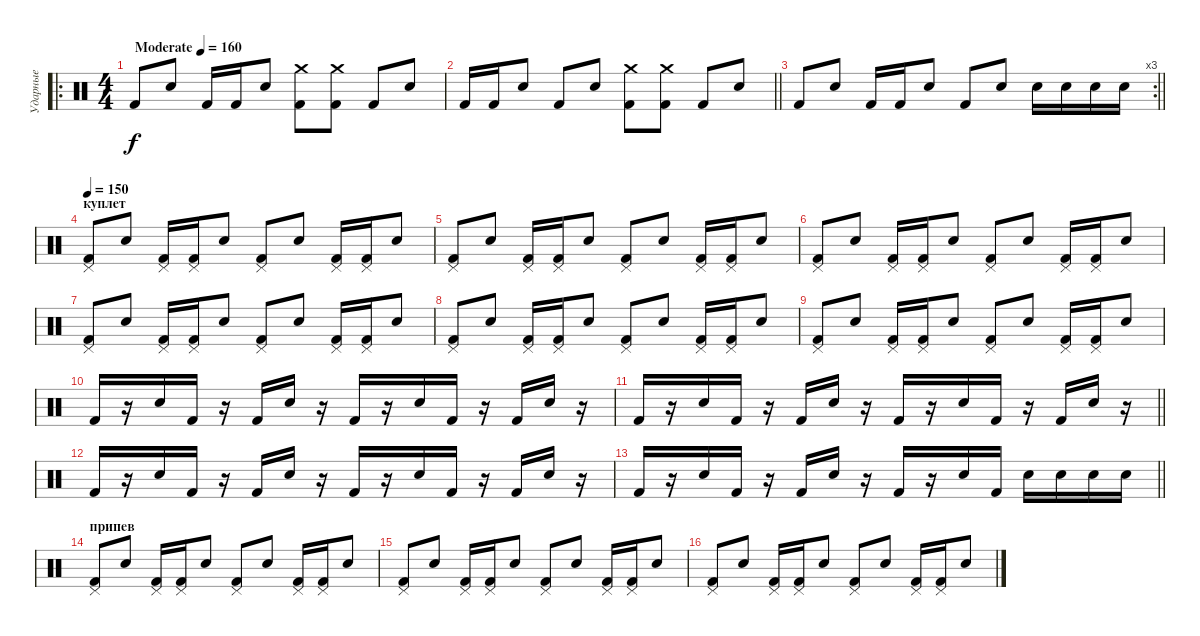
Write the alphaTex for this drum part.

\track ("Ударные" "Ударные") {instrument percussion}
\staff {score}
\articulation defaults
\ro
\ts (4 4)
\tempo (160 "Moderate")
\tempo 140
\tempo (160 "Moderate")
\clef neutral
\ks c "Kick (hit) 2".8{dy f} "Electric Snare (hit)".8 "Kick (hit) 2".16 "Kick (hit) 2".16 "Electric Snare (hit)".8
("Kick (hit) 2" "Crash medium (hit)").8 ("Kick (hit) 2" "Crash medium (hit)").8 "Kick (hit) 2".8 "Electric Snare (hit)".8 |
\barLineRight lightlight "Kick (hit) 2".16 "Kick (hit) 2".16 "Electric Snare (hit)".8 "Kick (hit) 2".8 "Electric Snare (hit)".8
("Kick (hit) 2" "Crash medium (hit)").8 ("Kick (hit) 2" "Crash medium (hit)").8 "Kick (hit) 2".8 "Electric Snare (hit)".8 |
\rc 3
\barLineRight lightlight "Kick (hit) 2".8 "Electric Snare (hit)".8 "Kick (hit) 2".16 "Kick (hit) 2".16 "Electric Snare (hit)".8 "Kick (hit) 2".8 "Electric Snare (hit)".8 "Electric Snare (hit)".16 "Electric Snare (hit)".16 "Electric Snare (hit)".16 "Electric Snare (hit)".16
|
\section ("" "куплет")
\tempo 150
("Kick (hit) 2" "Pedal Hi-Hat (hit)").8 "Electric Snare (hit)".8 ("Kick (hit) 2" "Pedal Hi-Hat (hit)").16 ("Kick (hit) 2" "Pedal Hi-Hat (hit)").16 "Electric Snare (hit)".8 ("Kick (hit) 2" "Pedal Hi-Hat (hit)").8 "Electric Snare (hit)".8 ("Kick (hit) 2" "Pedal Hi-Hat (hit)").16 ("Kick (hit) 2" "Pedal Hi-Hat (hit)").16 "Electric Snare (hit)".8 |
("Kick (hit) 2" "Pedal Hi-Hat (hit)").8 "Electric Snare (hit)".8 ("Kick (hit) 2" "Pedal Hi-Hat (hit)").16 ("Kick (hit) 2" "Pedal Hi-Hat (hit)").16 "Electric Snare (hit)".8 ("Kick (hit) 2" "Pedal Hi-Hat (hit)").8 "Electric Snare (hit)".8 ("Kick (hit) 2" "Pedal Hi-Hat (hit)").16 ("Kick (hit) 2" "Pedal Hi-Hat (hit)").16 "Electric Snare (hit)".8 |
("Kick (hit) 2" "Pedal Hi-Hat (hit)").8 "Electric Snare (hit)".8 ("Kick (hit) 2" "Pedal Hi-Hat (hit)").16 ("Kick (hit) 2" "Pedal Hi-Hat (hit)").16 "Electric Snare (hit)".8 ("Kick (hit) 2" "Pedal Hi-Hat (hit)").8 "Electric Snare (hit)".8 ("Kick (hit) 2" "Pedal Hi-Hat (hit)").16 ("Kick (hit) 2" "Pedal Hi-Hat (hit)").16 "Electric Snare (hit)".8 |
("Kick (hit) 2" "Pedal Hi-Hat (hit)").8 "Electric Snare (hit)".8 ("Kick (hit) 2" "Pedal Hi-Hat (hit)").16 ("Kick (hit) 2" "Pedal Hi-Hat (hit)").16 "Electric Snare (hit)".8 ("Kick (hit) 2" "Pedal Hi-Hat (hit)").8 "Electric Snare (hit)".8 ("Kick (hit) 2" "Pedal Hi-Hat (hit)").16 ("Kick (hit) 2" "Pedal Hi-Hat (hit)").16 "Electric Snare (hit)".8 |
("Kick (hit) 2" "Pedal Hi-Hat (hit)").8 "Electric Snare (hit)".8 ("Kick (hit) 2" "Pedal Hi-Hat (hit)").16 ("Kick (hit) 2" "Pedal Hi-Hat (hit)").16 "Electric Snare (hit)".8 ("Kick (hit) 2" "Pedal Hi-Hat (hit)").8 "Electric Snare (hit)".8 ("Kick (hit) 2" "Pedal Hi-Hat (hit)").16 ("Kick (hit) 2" "Pedal Hi-Hat (hit)").16 "Electric Snare (hit)".8 |
("Kick (hit) 2" "Pedal Hi-Hat (hit)").8 "Electric Snare (hit)".8 ("Kick (hit) 2" "Pedal Hi-Hat (hit)").16 ("Kick (hit) 2" "Pedal Hi-Hat (hit)").16 "Electric Snare (hit)".8 ("Kick (hit) 2" "Pedal Hi-Hat (hit)").8 "Electric Snare (hit)".8 ("Kick (hit) 2" "Pedal Hi-Hat (hit)").16 ("Kick (hit) 2" "Pedal Hi-Hat (hit)").16 "Electric Snare (hit)".8 |
"Kick (hit) 2".16 r.16 "Electric Snare (hit)".16 "Kick (hit) 2".16 r.16 "Kick (hit) 2".16 "Electric Snare (hit)".16 r.16 "Kick (hit) 2".16 r.16 "Electric Snare (hit)".16 "Kick (hit) 2".16 r.16 "Kick (hit) 2".16 "Electric Snare (hit)".16 r.16 |
\barLineRight lightlight "Kick (hit) 2".16
r.16 "Electric Snare (hit)".16 "Kick (hit) 2".16 r.16 "Kick (hit) 2".16 "Electric Snare (hit)".16 r.16 "Kick (hit) 2".16 r.16 "Electric Snare (hit)".16 "Kick (hit) 2".16 r.16 "Kick (hit) 2".16 "Electric Snare (hit)".16 r.16 |
"Kick (hit) 2".16 r.16 "Electric Snare (hit)".16 "Kick (hit) 2".16 r.16 "Kick (hit) 2".16 "Electric Snare (hit)".16 r.16 "Kick (hit) 2".16 r.16 "Electric Snare (hit)".16 "Kick (hit) 2".16 r.16 "Kick (hit) 2".16 "Electric Snare (hit)".16 r.16 |
\barLineRight lightlight "Kick (hit) 2".16
r.16 "Electric Snare (hit)".16 "Kick (hit) 2".16 r.16 "Kick (hit) 2".16 "Electric Snare (hit)".16 r.16 "Kick (hit) 2".16 r.16 "Electric Snare (hit)".16 "Kick (hit) 2".16 "Electric Snare (hit)".16 "Electric Snare (hit)".16 "Electric Snare (hit)".16 "Electric Snare (hit)".16 |
\section ("" "припев")
("Kick (hit) 2" "Pedal Hi-Hat (hit)").8 "Electric Snare (hit)".8 ("Kick (hit) 2" "Pedal Hi-Hat (hit)").16 ("Kick (hit) 2" "Pedal Hi-Hat (hit)").16 "Electric Snare (hit)".8 ("Kick (hit) 2" "Pedal Hi-Hat (hit)").8 "Electric Snare (hit)".8 ("Kick (hit) 2" "Pedal Hi-Hat (hit)").16 ("Kick (hit) 2" "Pedal Hi-Hat (hit)").16 "Electric Snare (hit)".8 |
("Kick (hit) 2" "Pedal Hi-Hat (hit)").8 "Electric Snare (hit)".8 ("Kick (hit) 2" "Pedal Hi-Hat (hit)").16 ("Kick (hit) 2" "Pedal Hi-Hat (hit)").16 "Electric Snare (hit)".8 ("Kick (hit) 2" "Pedal Hi-Hat (hit)").8 "Electric Snare (hit)".8 ("Kick (hit) 2" "Pedal Hi-Hat (hit)").16 ("Kick (hit) 2" "Pedal Hi-Hat (hit)").16 "Electric Snare (hit)".8 |
("Kick (hit) 2" "Pedal Hi-Hat (hit)").8 "Electric Snare (hit)".8 ("Kick (hit) 2" "Pedal Hi-Hat (hit)").16 ("Kick (hit) 2" "Pedal Hi-Hat (hit)").16 "Electric Snare (hit)".8 ("Kick (hit) 2" "Pedal Hi-Hat (hit)").8 "Electric Snare (hit)".8 ("Kick (hit) 2" "Pedal Hi-Hat (hit)").16 ("Kick (hit) 2" "Pedal Hi-Hat (hit)").16 "Electric Snare (hit)".8
